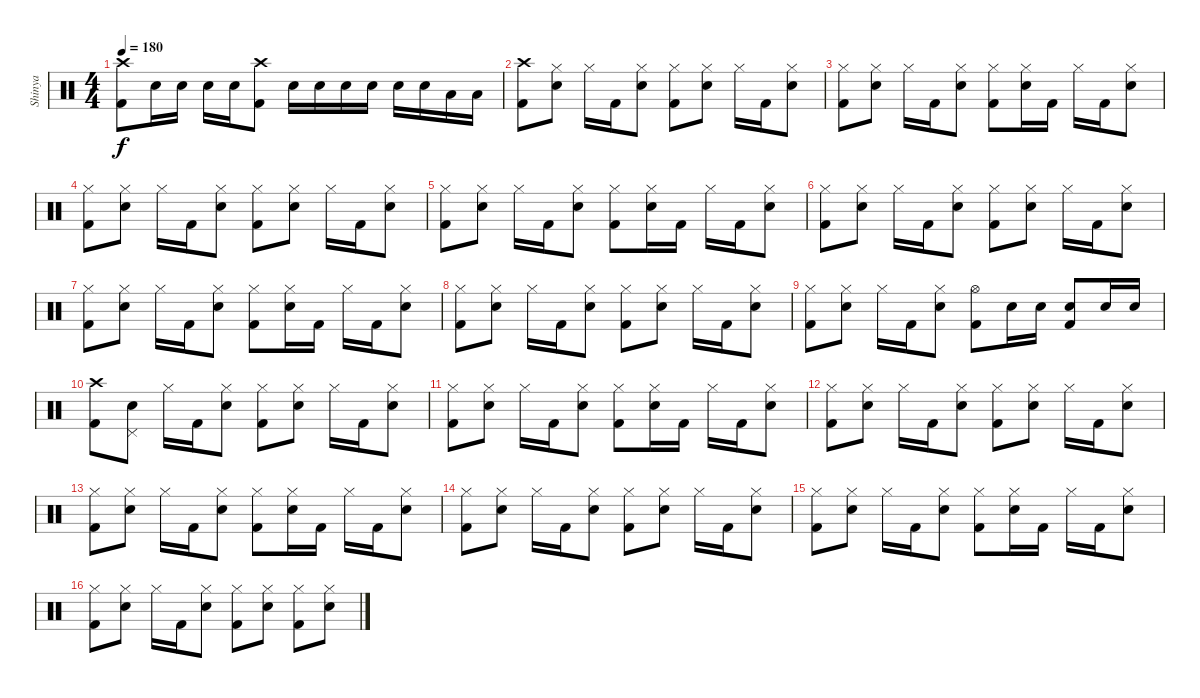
\track ("Shinya" "Shinya") {instrument percussion}
\staff {score}
\articulation defaults
\ts (4 4)
\tempo 180
\clef neutral
\ks c
("Crash high (hit)" "Kick (hit) 2").8{dy f} "Electric Snare (hit)".16 "Electric Snare (hit)".16 "Electric Snare (hit)".16 "Electric Snare (hit)".16 ("Crash high (hit)" "Kick (hit) 2").8 "Electric Snare (hit)".16 "Electric Snare (hit)".16 "Electric Snare (hit)".16 "Electric Snare (hit)".16 "Electric Snare (hit)".16 "Electric Snare (hit)".16 "Low Tom (hit)".16 "Low Tom (hit)".16 |
("Crash high (hit)" "Kick (hit) 2").8 ("Hi-Hat (closed)" "Electric Snare (hit)").8 "Hi-Hat (closed)".16 "Kick (hit) 2".16 ("Hi-Hat (closed)" "Electric Snare (hit)").8 ("Hi-Hat (closed)" "Kick (hit) 2").8 ("Hi-Hat (closed)" "Electric Snare (hit)").8 "Hi-Hat (closed)".16 "Kick (hit) 2".16 ("Hi-Hat (closed)" "Electric Snare (hit)").8 |
("Hi-Hat (closed)" "Kick (hit) 2").8 ("Hi-Hat (closed)" "Electric Snare (hit)").8 "Hi-Hat (closed)".16 "Kick (hit) 2".16 ("Hi-Hat (closed)" "Electric Snare (hit)").8 ("Hi-Hat (closed)" "Kick (hit) 2").8 ("Hi-Hat (closed)" "Electric Snare (hit)").16 "Kick (hit) 2".16 "Hi-Hat (closed)".16 "Kick (hit) 2".16 ("Hi-Hat (closed)" "Electric Snare (hit)").8 |
("Hi-Hat (closed)" "Kick (hit) 2").8 ("Hi-Hat (closed)" "Electric Snare (hit)").8 "Hi-Hat (closed)".16 "Kick (hit) 2".16 ("Hi-Hat (closed)" "Electric Snare (hit)").8 ("Hi-Hat (closed)" "Kick (hit) 2").8 ("Hi-Hat (closed)" "Electric Snare (hit)").8 "Hi-Hat (closed)".16 "Kick (hit) 2".16 ("Hi-Hat (closed)" "Electric Snare (hit)").8 |
("Hi-Hat (closed)" "Kick (hit) 2").8 ("Hi-Hat (closed)" "Electric Snare (hit)").8 "Hi-Hat (closed)".16 "Kick (hit) 2".16 ("Hi-Hat (closed)" "Electric Snare (hit)").8 ("Hi-Hat (closed)" "Kick (hit) 2").8 ("Hi-Hat (closed)" "Electric Snare (hit)").16 "Kick (hit) 2".16 "Hi-Hat (closed)".16 "Kick (hit) 2".16 ("Hi-Hat (closed)" "Electric Snare (hit)").8 |
("Hi-Hat (closed)" "Kick (hit) 2").8 ("Hi-Hat (closed)" "Electric Snare (hit)").8 "Hi-Hat (closed)".16 "Kick (hit) 2".16 ("Hi-Hat (closed)" "Electric Snare (hit)").8 ("Hi-Hat (closed)" "Kick (hit) 2").8 ("Hi-Hat (closed)" "Electric Snare (hit)").8 "Hi-Hat (closed)".16 "Kick (hit) 2".16 ("Hi-Hat (closed)" "Electric Snare (hit)").8 |
("Hi-Hat (closed)" "Kick (hit) 2").8 ("Hi-Hat (closed)" "Electric Snare (hit)").8 "Hi-Hat (closed)".16 "Kick (hit) 2".16 ("Hi-Hat (closed)" "Electric Snare (hit)").8 ("Hi-Hat (closed)" "Kick (hit) 2").8 ("Hi-Hat (closed)" "Electric Snare (hit)").16 "Kick (hit) 2".16 "Hi-Hat (closed)".16 "Kick (hit) 2".16 ("Hi-Hat (closed)" "Electric Snare (hit)").8 |
("Hi-Hat (closed)" "Kick (hit) 2").8 ("Hi-Hat (closed)" "Electric Snare (hit)").8 "Hi-Hat (closed)".16 "Kick (hit) 2".16 ("Hi-Hat (closed)" "Electric Snare (hit)").8 ("Hi-Hat (closed)" "Kick (hit) 2").8 ("Hi-Hat (closed)" "Electric Snare (hit)").8 "Hi-Hat (closed)".16 "Kick (hit) 2".16 ("Hi-Hat (closed)" "Electric Snare (hit)").8 |
("Hi-Hat (closed)" "Kick (hit) 2").8 ("Hi-Hat (closed)" "Electric Snare (hit)").8 "Hi-Hat (closed)".16 "Kick (hit) 2".16 ("Hi-Hat (closed)" "Electric Snare (hit)").8 ("Hi-Hat (open)" "Kick (hit) 2").8 "Electric Snare (hit)".16 "Electric Snare (hit)".16 ("Electric Snare (hit)" "Kick (hit) 2").8 "Electric Snare (hit)".16 "Electric Snare (hit)".16 |
("Crash high (hit)" "Kick (hit) 2").8 ("Pedal Hi-Hat (hit)" "Electric Snare (hit)").8 "Hi-Hat (closed)".16 "Kick (hit) 2".16 ("Hi-Hat (closed)" "Electric Snare (hit)").8 ("Hi-Hat (closed)" "Kick (hit) 2").8 ("Hi-Hat (closed)" "Electric Snare (hit)").8 "Hi-Hat (closed)".16 "Kick (hit) 2".16 ("Hi-Hat (closed)" "Electric Snare (hit)").8 |
("Hi-Hat (closed)" "Kick (hit) 2").8 ("Hi-Hat (closed)" "Electric Snare (hit)").8 "Hi-Hat (closed)".16 "Kick (hit) 2".16 ("Hi-Hat (closed)" "Electric Snare (hit)").8 ("Hi-Hat (closed)" "Kick (hit) 2").8 ("Hi-Hat (closed)" "Electric Snare (hit)").16 "Kick (hit) 2".16 "Hi-Hat (closed)".16 "Kick (hit) 2".16 ("Hi-Hat (closed)" "Electric Snare (hit)").8 |
("Hi-Hat (closed)" "Kick (hit) 2").8 ("Hi-Hat (closed)" "Electric Snare (hit)").8 "Hi-Hat (closed)".16 "Kick (hit) 2".16 ("Hi-Hat (closed)" "Electric Snare (hit)").8 ("Hi-Hat (closed)" "Kick (hit) 2").8 ("Hi-Hat (closed)" "Electric Snare (hit)").8 "Hi-Hat (closed)".16 "Kick (hit) 2".16 ("Hi-Hat (closed)" "Electric Snare (hit)").8 |
("Hi-Hat (closed)" "Kick (hit) 2").8 ("Hi-Hat (closed)" "Electric Snare (hit)").8 "Hi-Hat (closed)".16 "Kick (hit) 2".16 ("Hi-Hat (closed)" "Electric Snare (hit)").8 ("Hi-Hat (closed)" "Kick (hit) 2").8 ("Hi-Hat (closed)" "Electric Snare (hit)").16 "Kick (hit) 2".16 "Hi-Hat (closed)".16 "Kick (hit) 2".16 ("Hi-Hat (closed)" "Electric Snare (hit)").8 |
("Hi-Hat (closed)" "Kick (hit) 2").8 ("Hi-Hat (closed)" "Electric Snare (hit)").8 "Hi-Hat (closed)".16 "Kick (hit) 2".16 ("Hi-Hat (closed)" "Electric Snare (hit)").8 ("Hi-Hat (closed)" "Kick (hit) 2").8 ("Hi-Hat (closed)" "Electric Snare (hit)").8 "Hi-Hat (closed)".16 "Kick (hit) 2".16 ("Hi-Hat (closed)" "Electric Snare (hit)").8 |
("Hi-Hat (closed)" "Kick (hit) 2").8 ("Hi-Hat (closed)" "Electric Snare (hit)").8 "Hi-Hat (closed)".16 "Kick (hit) 2".16 ("Hi-Hat (closed)" "Electric Snare (hit)").8 ("Hi-Hat (closed)" "Kick (hit) 2").8 ("Hi-Hat (closed)" "Electric Snare (hit)").16 "Kick (hit) 2".16 "Hi-Hat (closed)".16 "Kick (hit) 2".16 ("Hi-Hat (closed)" "Electric Snare (hit)").8 |
("Hi-Hat (closed)" "Kick (hit) 2").8 ("Hi-Hat (closed)" "Electric Snare (hit)").8 "Hi-Hat (closed)".16 "Kick (hit) 2".16 ("Hi-Hat (closed)" "Electric Snare (hit)").8 ("Hi-Hat (closed)" "Kick (hit) 2").8 ("Hi-Hat (closed)" "Electric Snare (hit)").8 ("Hi-Hat (closed)" "Kick (hit) 2").8 ("Hi-Hat (closed)" "Electric Snare (hit)").8
